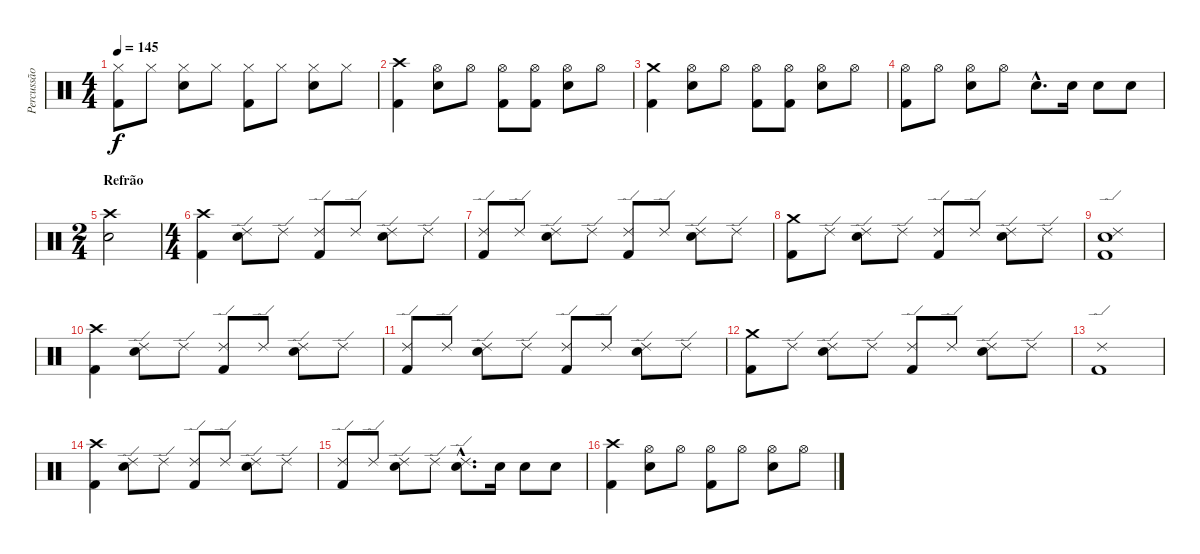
\track ("Percussão" "Percussão") {instrument percussion}
\staff {score}
\articulation defaults
\ts (4 4)
\tempo 145
\clef neutral
\ks c
("Hi-Hat (closed)" "Kick (hit) 2").8{dy f} "Hi-Hat (closed)".8 ("Hi-Hat (closed)" "Electric Snare (hit)").8 "Hi-Hat (closed)".8 ("Hi-Hat (closed)" "Kick (hit) 2").8 "Hi-Hat (closed)".8 ("Hi-Hat (closed)" "Electric Snare (hit)").8 "Hi-Hat (closed)".8 |
("Crash high (hit)" "Kick (hit) 2").4 ("Hi-Hat (open)" "Electric Snare (hit)").8 "Hi-Hat (open)".8 ("Hi-Hat (open)" "Kick (hit) 2").8 ("Hi-Hat (open)" "Kick (hit) 2").8 ("Hi-Hat (open)" "Electric Snare (hit)").8 "Hi-Hat (open)".8 |
("Crash medium (hit)" "Kick (hit) 2").4 ("Hi-Hat (open)" "Electric Snare (hit)").8 "Hi-Hat (open)".8 ("Hi-Hat (open)" "Kick (hit) 2").8 ("Hi-Hat (open)" "Kick (hit) 2").8 ("Hi-Hat (open)" "Electric Snare (hit)").8 "Hi-Hat (open)".8 |
("Hi-Hat (open)" "Kick (hit) 2").8 "Hi-Hat (open)".8 ("Hi-Hat (open)" "Electric Snare (hit)").8 "Hi-Hat (open)".8 "Electric Snare (hit)"{hac}.8{d} "Electric Snare (hit)".16 "Electric Snare (hit)".8 "Electric Snare (hit)".8 |
\ts (2 4)
\section ("" "Refrão")
("Crash high (hit)" "Electric Snare (hit)").2 |
\ts (4 4)
("Crash high (hit)" "Kick (hit) 2").4 ("Ride (edge) 2" "Electric Snare (hit)").8 "Ride (edge) 2".8 ("Ride (edge) 2" "Kick (hit) 2").8 "Ride (edge) 2".8 ("Ride (edge) 2" "Electric Snare (hit)").8 "Ride (edge) 2".8 |
("Ride (edge) 2" "Kick (hit) 2").8 "Ride (edge) 2".8 ("Ride (edge) 2" "Electric Snare (hit)").8 "Ride (edge) 2".8 ("Ride (edge) 2" "Kick (hit) 2").8 "Ride (edge) 2".8 ("Ride (edge) 2" "Electric Snare (hit)").8 "Ride (edge) 2".8 |
("Crash medium (hit)" "Kick (hit) 2").8 "Ride (edge) 2".8 ("Ride (edge) 2" "Electric Snare (hit)").8 "Ride (edge) 2".8 ("Ride (edge) 2" "Kick (hit) 2").8 "Ride (edge) 2".8 ("Ride (edge) 2" "Electric Snare (hit)").8 "Ride (edge) 2".8 |
("Ride (edge) 2" "Electric Snare (hit)" "Kick (hit) 2").1 |
("Crash high (hit)" "Kick (hit) 2").4 ("Ride (edge) 2" "Electric Snare (hit)").8 "Ride (edge) 2".8 ("Ride (edge) 2" "Kick (hit) 2").8 "Ride (edge) 2".8 ("Ride (edge) 2" "Electric Snare (hit)").8 "Ride (edge) 2".8 |
("Ride (edge) 2" "Kick (hit) 2").8 "Ride (edge) 2".8 ("Ride (edge) 2" "Electric Snare (hit)").8 "Ride (edge) 2".8 ("Ride (edge) 2" "Kick (hit) 2").8 "Ride (edge) 2".8 ("Ride (edge) 2" "Electric Snare (hit)").8 "Ride (edge) 2".8 |
("Crash medium (hit)" "Kick (hit) 2").8 "Ride (edge) 2".8 ("Ride (edge) 2" "Electric Snare (hit)").8 "Ride (edge) 2".8 ("Ride (edge) 2" "Kick (hit) 2").8 "Ride (edge) 2".8 ("Ride (edge) 2" "Electric Snare (hit)").8 "Ride (edge) 2".8 |
("Ride (edge) 2" "Kick (hit) 2").1 |
("Crash high (hit)" "Kick (hit) 2").4 ("Ride (edge) 2" "Electric Snare (hit)").8 "Ride (edge) 2".8 ("Ride (edge) 2" "Kick (hit) 2").8 "Ride (edge) 2".8 ("Ride (edge) 2" "Electric Snare (hit)").8 "Ride (edge) 2".8 |
("Ride (edge) 2" "Kick (hit) 2").8 "Ride (edge) 2".8 ("Ride (edge) 2" "Electric Snare (hit)").8 "Ride (edge) 2".8 ("Ride (edge) 2"{hac} "Electric Snare (hit)"{hac}).8{d} "Electric Snare (hit)".16 "Electric Snare (hit)".8 "Electric Snare (hit)".8 |
("Crash high (hit)" "Kick (hit) 2").4 ("Hi-Hat (open)" "Electric Snare (hit)").8 "Hi-Hat (open)".8 ("Hi-Hat (open)" "Kick (hit) 2").8 "Hi-Hat (open)".8 ("Hi-Hat (open)" "Electric Snare (hit)").8 "Hi-Hat (open)".8
